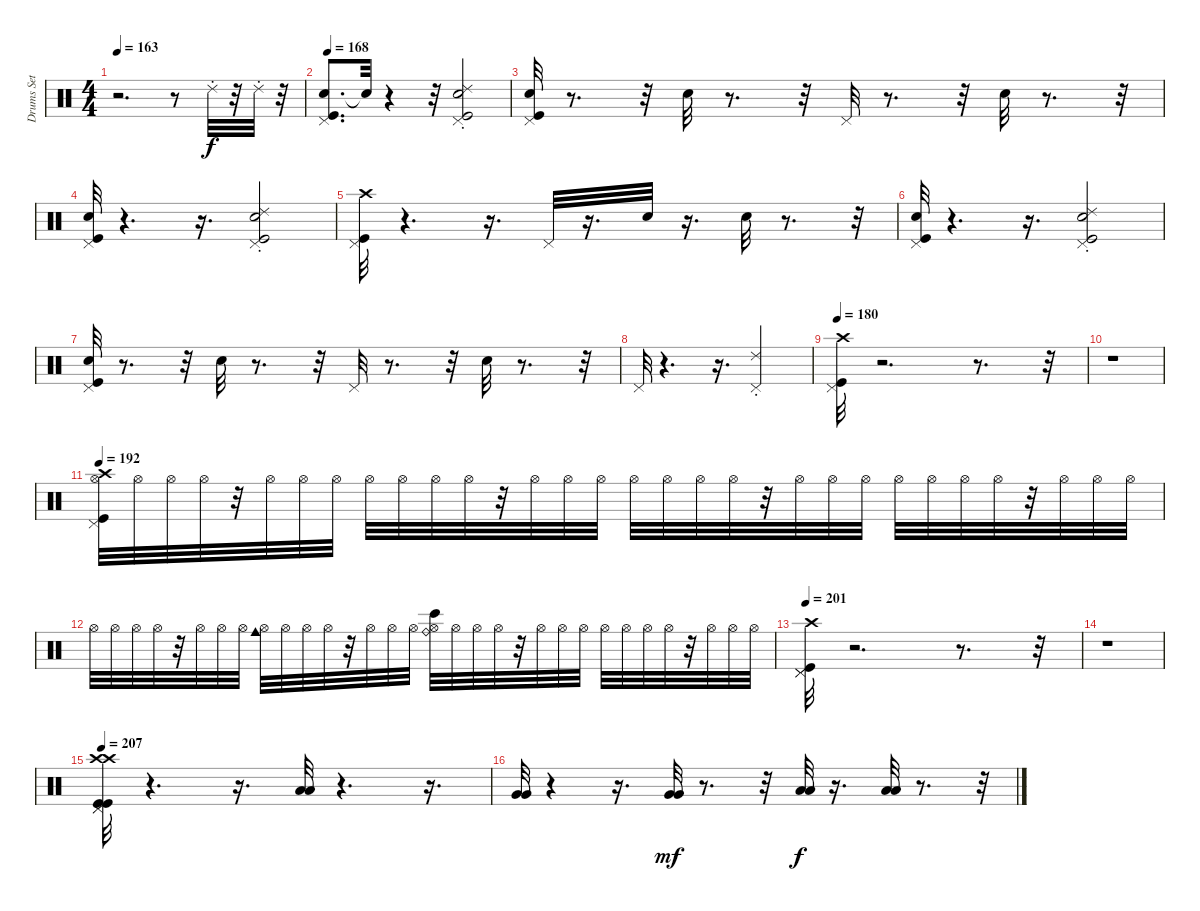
\track ("Drums Set" "Drums Set") {instrument percussion}
\staff {score}
\articulation defaults
\ts (4 4)
\tempo 163
\clef neutral
\ks c
r.2{d dy f} r.8 "Ride (choke) 2".32 r.32 "Ride (choke) 2".32 r.32 |
\tempo 168
("Snare (hit) 2" "Pedal Hi-Hat (hit)" "Kick (hit)").8{d} "Snare (hit)"{t}.32 r.4 r.32 ("Pedal Hi-Hat (hit)" "Kick (hit)" "Snare (hit) 2" "Ride (choke) 2").2 |
("Kick (hit)" "Snare (hit) 2" "Pedal Hi-Hat (hit)").32 r.8{d} r.32 "Snare (hit) 2".32 r.8{d} r.32 "Pedal Hi-Hat (hit)".32 r.8{d} r.32 "Snare (hit) 2".32 r.8{d} r.32 |
("Snare (hit) 2" "Kick (hit)" "Pedal Hi-Hat (hit)").32 r.4{d} r.16{d} ("Snare (hit) 2" "Kick (hit)" "Pedal Hi-Hat (hit)" "Ride (choke) 2").2 |
("Crash high (hit)" "Kick (hit)" "Pedal Hi-Hat (hit)").32 r.4{d} r.16{d} "Pedal Hi-Hat (hit)".32 r.16{d} "Electric Snare (hit)".32 r.16{d} "Electric Snare (hit)".32 r.8{d} r.32 |
("Kick (hit)" "Snare (hit) 2" "Pedal Hi-Hat (hit)").32 r.4{d} r.16{d} ("Kick (hit)" "Snare (hit) 2" "Pedal Hi-Hat (hit)" "Ride (choke) 2").2 |
("Kick (hit)" "Snare (hit) 2" "Pedal Hi-Hat (hit)").32 r.8{d} r.32 "Snare (hit) 2".32 r.8{d} r.32 "Pedal Hi-Hat (hit)".32 r.8{d} r.32 "Snare (hit) 2".32 r.8{d} r.32 |
"Pedal Hi-Hat (hit)".32 r.4{d} r.16{d} ("Ride (choke) 2" "Pedal Hi-Hat (hit)").2 |
\tempo 180
("Kick (hit)" "Crash high (hit)" "Pedal Hi-Hat (hit)").32 r.2{d} r.8{d} r.32 |
r.1 |
\tempo 192
("Kick (hit)" "Crash high (hit)" "Pedal Hi-Hat (hit)" "Hi-Hat (open)").32 "Hi-Hat (open)".32 "Hi-Hat (open)".32 "Hi-Hat (open)".32 r.32 "Hi-Hat (open)".32 "Hi-Hat (open)".32 "Hi-Hat (open)".32 "Hi-Hat (open)".32 "Hi-Hat (open)".32 "Hi-Hat (open)".32 "Hi-Hat (open)".32 r.32 "Hi-Hat (open)".32 "Hi-Hat (open)".32 "Hi-Hat (open)".32 "Hi-Hat (open)".32 "Hi-Hat (open)".32 "Hi-Hat (open)".32 "Hi-Hat (open)".32 r.32 "Hi-Hat (open)".32 "Hi-Hat (open)".32 "Hi-Hat (open)".32 "Hi-Hat (open)".32 "Hi-Hat (open)".32 "Hi-Hat (open)".32 "Hi-Hat (open)".32 r.32 "Hi-Hat (open)".32 "Hi-Hat (open)".32 "Hi-Hat (open)".32 |
"Hi-Hat (open)".32 "Hi-Hat (open)".32 "Hi-Hat (open)".32 "Hi-Hat (open)".32 r.32 "Hi-Hat (open)".32 "Hi-Hat (open)".32 "Hi-Hat (open)".32 ("Hi-Hat (open)" "Cowbell medium (hit)").32 "Hi-Hat (open)".32 "Hi-Hat (open)".32 "Hi-Hat (open)".32 r.32 "Hi-Hat (open)".32 "Hi-Hat (open)".32 "Hi-Hat (open)".32 ("Hi-Hat (open)" "Ride (bell)" "Bongo High (hit)").32 "Hi-Hat (open)".32 "Hi-Hat (open)".32 "Hi-Hat (open)".32 r.32 "Hi-Hat (open)".32 "Hi-Hat (open)".32 "Hi-Hat (open)".32 "Hi-Hat (open)".32 "Hi-Hat (open)".32 "Hi-Hat (open)".32 "Hi-Hat (open)".32 r.32 "Hi-Hat (open)".32 "Hi-Hat (open)".32 "Hi-Hat (open)".32 |
\tempo 201
("Pedal Hi-Hat (hit)" "Kick (hit)" "Crash high (hit)" "Pedal Hi-Hat (hit)").32 r.2{d} r.8{d} r.32 |
r.1 |
\tempo 207
("Kick (hit)" "Crash high (hit)" "Pedal Hi-Hat (hit)" "Kick (hit)" "Crash high (hit)" "Pedal Hi-Hat (hit)").32 r.4{d} r.16{d} ("Low Tom (hit)" "Low Tom (hit)").32 r.4{d} r.16{d} |
("Very Low Tom (hit)" "Very Low Tom (hit)").32 r.4 r.16{d} ("Very Low Tom (hit)" "Very Low Tom (hit)").32{dy mf} r.8{d} r.32 ("Low Floor Tom (hit)" "Low Floor Tom (hit)").32{dy f} r.16{d} ("Low Floor Tom (hit)" "Low Floor Tom (hit)").32 r.8{d} r.32
